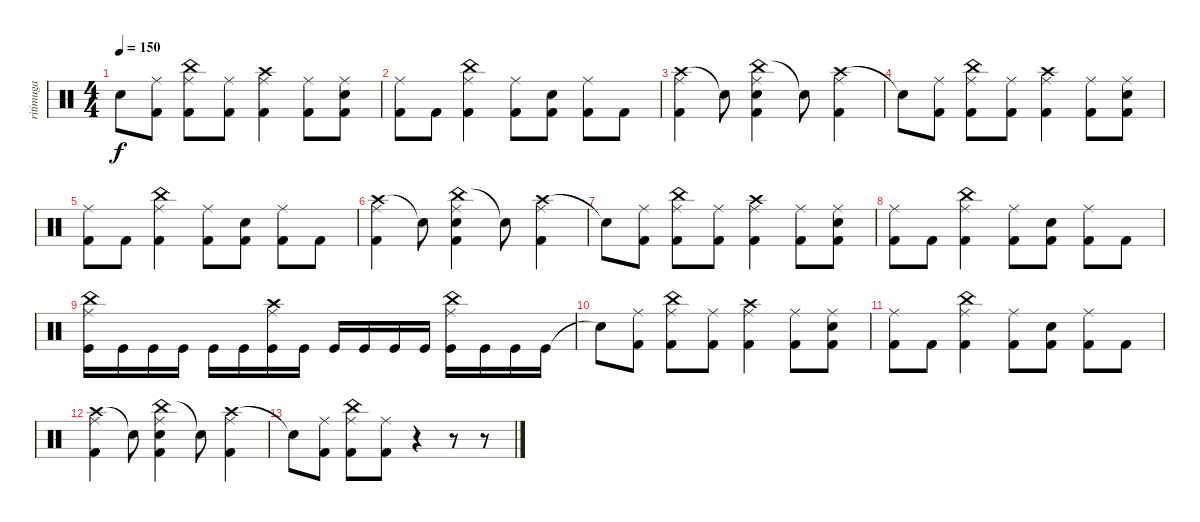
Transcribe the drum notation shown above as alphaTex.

\track ("ritimuga" "ritimuga") {instrument percussion}
\staff {score}
\articulation defaults
\ts (4 4)
\tempo 150
\clef neutral
\ks c "Snare (hit)"{t}.8{dy f}
("Ride (middle)" "Kick (hit) 2").8 ("Ride (middle)" "China (hit)" "Kick (hit) 2").8 ("Ride (middle)" "Kick (hit) 2").8 ("Ride (middle)" "Crash high (hit)" "Kick (hit) 2").4 ("Ride (middle)" "Kick (hit) 2").8 ("Ride (middle)" "Electric Snare (hit)" "Kick (hit) 2").8 |
("Ride (middle)" "Kick (hit) 2").8 "Kick (hit) 2".8 ("Ride (middle)" "China (hit)" "Kick (hit) 2").4 ("Ride (middle)" "Kick (hit) 2").8 ("Electric Snare (hit)" "Kick (hit) 2").8 ("Ride (middle)" "Kick (hit) 2").8 "Kick (hit) 2".8 |
("Crash high (hit)" "Ride (middle)" "Kick (hit) 2").4 "Snare (hit)"{t}.8 ("China (hit)" "Electric Snare (hit)" "Ride (middle)" "Kick (hit) 2").4 "Snare (hit)"{t}.8 ("Crash high (hit)" "Ride (middle)" "Kick (hit) 2").4 |
"Snare (hit)"{t}.8 ("Ride (middle)" "Kick (hit) 2").8 ("Ride (middle)" "China (hit)" "Kick (hit) 2").8 ("Ride (middle)" "Kick (hit) 2").8 ("Ride (middle)" "Crash high (hit)" "Kick (hit) 2").4 ("Ride (middle)" "Kick (hit) 2").8 ("Ride (middle)" "Electric Snare (hit)" "Kick (hit) 2").8 |
("Ride (middle)" "Kick (hit) 2").8 "Kick (hit) 2".8 ("Ride (middle)" "China (hit)" "Kick (hit) 2").4 ("Ride (middle)" "Kick (hit) 2").8 ("Electric Snare (hit)" "Kick (hit) 2").8 ("Ride (middle)" "Kick (hit) 2").8 "Kick (hit) 2".8 |
("Crash high (hit)" "Ride (middle)" "Kick (hit) 2").4 "Snare (hit)"{t}.8 ("China (hit)" "Electric Snare (hit)" "Ride (middle)" "Kick (hit) 2").4 "Snare (hit)"{t}.8 ("Crash high (hit)" "Ride (middle)" "Kick (hit) 2").4 |
"Snare (hit)"{t}.8 ("Ride (middle)" "Kick (hit) 2").8 ("Ride (middle)" "China (hit)" "Kick (hit) 2").8 ("Ride (middle)" "Kick (hit) 2").8 ("Ride (middle)" "Crash high (hit)" "Kick (hit) 2").4 ("Ride (middle)" "Kick (hit) 2").8 ("Ride (middle)" "Electric Snare (hit)" "Kick (hit) 2").8 |
("Ride (middle)" "Kick (hit) 2").8 "Kick (hit) 2".8 ("Ride (middle)" "China (hit)" "Kick (hit) 2").4 ("Ride (middle)" "Kick (hit) 2").8 ("Electric Snare (hit)" "Kick (hit) 2").8 ("Ride (middle)" "Kick (hit) 2").8 "Kick (hit) 2".8 |
("China (hit)" "Ride (middle)" "Kick (hit)").16 "Kick (hit)".16 "Kick (hit)".16 "Kick (hit)".16 "Kick (hit)".16 "Kick (hit)".16 ("Crash high (hit)" "Ride (middle)" "Kick (hit)").16 "Kick (hit)".16 "Kick (hit)".16 "Kick (hit)".16 "Kick (hit)".16 "Kick (hit)".16 ("China (hit)" "Ride (middle)" "Kick (hit)").16 "Kick (hit)".16 "Kick (hit)".16 "Kick (hit)".16 |
"Snare (hit)"{t}.8 ("Ride (middle)" "Kick (hit) 2").8 ("Ride (middle)" "China (hit)" "Kick (hit) 2").8 ("Ride (middle)" "Kick (hit) 2").8 ("Ride (middle)" "Crash high (hit)" "Kick (hit) 2").4 ("Ride (middle)" "Kick (hit) 2").8 ("Ride (middle)" "Electric Snare (hit)" "Kick (hit) 2").8 |
("Ride (middle)" "Kick (hit) 2").8 "Kick (hit) 2".8 ("Ride (middle)" "China (hit)" "Kick (hit) 2").4 ("Ride (middle)" "Kick (hit) 2").8 ("Electric Snare (hit)" "Kick (hit) 2").8 ("Ride (middle)" "Kick (hit) 2").8 "Kick (hit) 2".8 |
("Crash high (hit)" "Ride (middle)" "Kick (hit) 2").4 "Snare (hit)"{t}.8 ("China (hit)" "Electric Snare (hit)" "Ride (middle)" "Kick (hit) 2").4 "Snare (hit)"{t}.8 ("Crash high (hit)" "Ride (middle)" "Kick (hit) 2").4 |
"Snare (hit)"{t}.8 ("Ride (middle)" "Kick (hit) 2").8 ("Ride (middle)" "China (hit)" "Kick (hit) 2").8 ("Ride (middle)" "Kick (hit) 2").8 r.4 r.8 r.8
